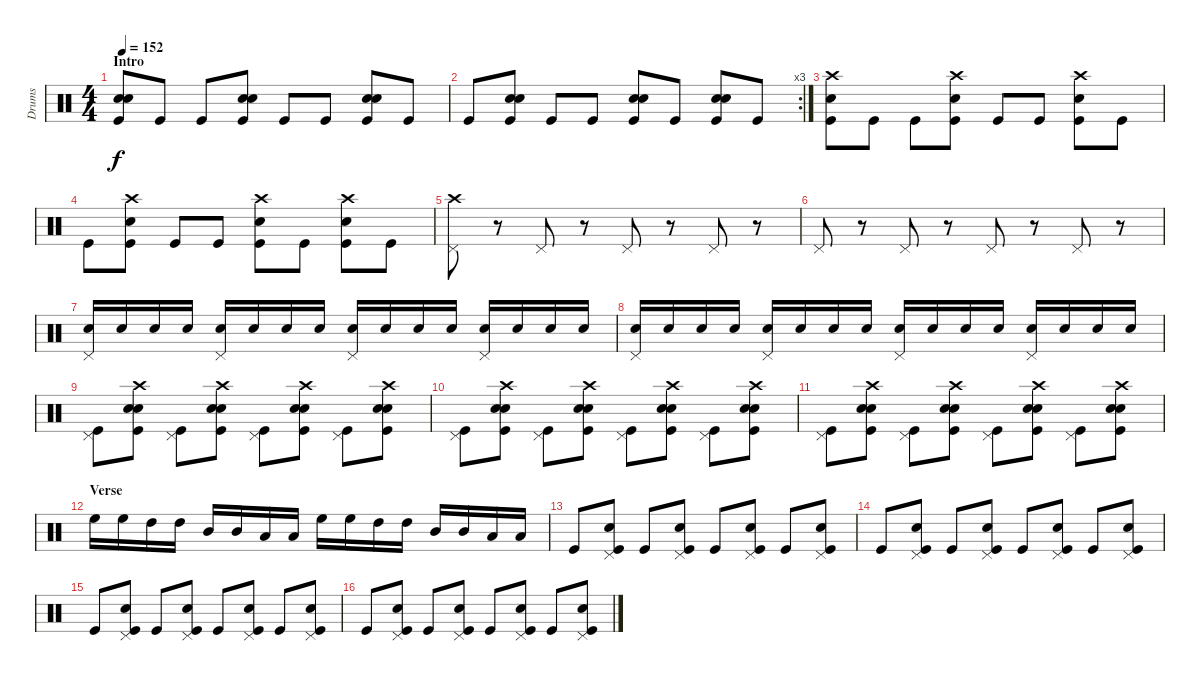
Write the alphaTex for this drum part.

\track ("Drums" "Drums") {instrument percussion}
\staff {score}
\articulation defaults
\ts (4 4)
\section ("" "Intro")
\tempo 152
\clef neutral
\ks c
("Electric Snare (hit)" "Electric Snare (hit)" "Kick (hit)").8{dy f} "Kick (hit)".8 "Kick (hit)".8 ("Electric Snare (hit)" "Electric Snare (hit)" "Kick (hit)").8 "Kick (hit)".8 "Kick (hit)".8 ("Electric Snare (hit)" "Electric Snare (hit)" "Kick (hit)").8 "Kick (hit)".8 |
\rc 3 "Kick (hit)".8
("Electric Snare (hit)" "Electric Snare (hit)" "Kick (hit)").8 "Kick (hit)".8 "Kick (hit)".8 ("Electric Snare (hit)" "Electric Snare (hit)" "Kick (hit)").8 "Kick (hit)".8 ("Electric Snare (hit)" "Electric Snare (hit)" "Kick (hit)").8 "Kick (hit)".8 |
("Crash high (hit)" "Electric Snare (hit)" "Kick (hit)").8 "Kick (hit)".8 "Kick (hit)".8 ("Crash high (hit)" "Electric Snare (hit)" "Kick (hit)").8 "Kick (hit)".8 "Kick (hit)".8 ("Crash high (hit)" "Electric Snare (hit)" "Kick (hit)").8 "Kick (hit)".8 |
"Kick (hit)".8 ("Crash high (hit)" "Electric Snare (hit)" "Kick (hit)").8 "Kick (hit)".8 "Kick (hit)".8 ("Crash high (hit)" "Electric Snare (hit)" "Kick (hit)").8 "Kick (hit)".8 ("Crash high (hit)" "Electric Snare (hit)" "Kick (hit)").8 "Kick (hit)".8 |
("Crash high (hit)" "Pedal Hi-Hat (hit)").8 r.8 "Pedal Hi-Hat (hit)".8 r.8 "Pedal Hi-Hat (hit)".8 r.8 "Pedal Hi-Hat (hit)".8 r.8 |
"Pedal Hi-Hat (hit)".8 r.8 "Pedal Hi-Hat (hit)".8 r.8 "Pedal Hi-Hat (hit)".8 r.8 "Pedal Hi-Hat (hit)".8 r.8 |
("Pedal Hi-Hat (hit)" "Electric Snare (hit)").16 "Electric Snare (hit)".16 "Electric Snare (hit)".16 "Electric Snare (hit)".16 ("Pedal Hi-Hat (hit)" "Electric Snare (hit)").16 "Electric Snare (hit)".16 "Electric Snare (hit)".16 "Electric Snare (hit)".16 ("Pedal Hi-Hat (hit)" "Electric Snare (hit)").16 "Electric Snare (hit)".16 "Electric Snare (hit)".16 "Electric Snare (hit)".16 ("Pedal Hi-Hat (hit)" "Electric Snare (hit)").16 "Electric Snare (hit)".16 "Electric Snare (hit)".16 "Electric Snare (hit)".16 |
("Pedal Hi-Hat (hit)" "Electric Snare (hit)").16 "Electric Snare (hit)".16 "Electric Snare (hit)".16 "Electric Snare (hit)".16 ("Pedal Hi-Hat (hit)" "Electric Snare (hit)").16 "Electric Snare (hit)".16 "Electric Snare (hit)".16 "Electric Snare (hit)".16 ("Pedal Hi-Hat (hit)" "Electric Snare (hit)").16 "Electric Snare (hit)".16 "Electric Snare (hit)".16 "Electric Snare (hit)".16 ("Pedal Hi-Hat (hit)" "Electric Snare (hit)").16 "Electric Snare (hit)".16 "Electric Snare (hit)".16 "Electric Snare (hit)".16 |
("Pedal Hi-Hat (hit)" "Kick (hit)").8 ("Crash high (hit)" "Electric Snare (hit)" "Electric Snare (hit)" "Kick (hit)").8 ("Pedal Hi-Hat (hit)" "Kick (hit)").8 ("Crash high (hit)" "Electric Snare (hit)" "Electric Snare (hit)" "Kick (hit)").8 ("Pedal Hi-Hat (hit)" "Kick (hit)").8 ("Crash high (hit)" "Electric Snare (hit)" "Electric Snare (hit)" "Kick (hit)").8 ("Pedal Hi-Hat (hit)" "Kick (hit)").8 ("Crash high (hit)" "Electric Snare (hit)" "Electric Snare (hit)" "Kick (hit)").8 |
("Pedal Hi-Hat (hit)" "Kick (hit)").8 ("Crash high (hit)" "Electric Snare (hit)" "Electric Snare (hit)" "Kick (hit)").8 ("Pedal Hi-Hat (hit)" "Kick (hit)").8 ("Crash high (hit)" "Electric Snare (hit)" "Electric Snare (hit)" "Kick (hit)").8 ("Pedal Hi-Hat (hit)" "Kick (hit)").8 ("Crash high (hit)" "Electric Snare (hit)" "Electric Snare (hit)" "Kick (hit)").8 ("Pedal Hi-Hat (hit)" "Kick (hit)").8 ("Crash high (hit)" "Electric Snare (hit)" "Electric Snare (hit)" "Kick (hit)").8 |
("Pedal Hi-Hat (hit)" "Kick (hit)").8 ("Crash high (hit)" "Electric Snare (hit)" "Electric Snare (hit)" "Kick (hit)").8 ("Pedal Hi-Hat (hit)" "Kick (hit)").8 ("Crash high (hit)" "Electric Snare (hit)" "Electric Snare (hit)" "Kick (hit)").8 ("Pedal Hi-Hat (hit)" "Kick (hit)").8 ("Crash high (hit)" "Electric Snare (hit)" "Electric Snare (hit)" "Kick (hit)").8 ("Pedal Hi-Hat (hit)" "Kick (hit)").8 ("Crash high (hit)" "Electric Snare (hit)" "Electric Snare (hit)" "Kick (hit)").8 |
\section ("" "Verse")
"High Floor Tom (hit)".16 "High Floor Tom (hit)".16 "High Tom (hit)".16 "High Tom (hit)".16 "Mid Tom (hit)".16 "Mid Tom (hit)".16 "Low Tom (hit)".16 "Low Tom (hit)".16 "High Floor Tom (hit)".16 "High Floor Tom (hit)".16 "High Tom (hit)".16 "High Tom (hit)".16 "Mid Tom (hit)".16 "Mid Tom (hit)".16 "Low Tom (hit)".16 "Low Tom (hit)".16 |
"Kick (hit)".8 ("Pedal Hi-Hat (hit)" "Electric Snare (hit)" "Kick (hit)").8 "Kick (hit)".8 ("Pedal Hi-Hat (hit)" "Electric Snare (hit)" "Kick (hit)").8 "Kick (hit)".8 ("Pedal Hi-Hat (hit)" "Electric Snare (hit)" "Kick (hit)").8 "Kick (hit)".8 ("Pedal Hi-Hat (hit)" "Electric Snare (hit)" "Kick (hit)").8 |
"Kick (hit)".8 ("Pedal Hi-Hat (hit)" "Electric Snare (hit)" "Kick (hit)").8 "Kick (hit)".8 ("Pedal Hi-Hat (hit)" "Electric Snare (hit)" "Kick (hit)").8 "Kick (hit)".8 ("Pedal Hi-Hat (hit)" "Electric Snare (hit)" "Kick (hit)").8 "Kick (hit)".8 ("Pedal Hi-Hat (hit)" "Electric Snare (hit)" "Kick (hit)").8 |
"Kick (hit)".8 ("Pedal Hi-Hat (hit)" "Electric Snare (hit)" "Kick (hit)").8 "Kick (hit)".8 ("Pedal Hi-Hat (hit)" "Electric Snare (hit)" "Kick (hit)").8 "Kick (hit)".8 ("Pedal Hi-Hat (hit)" "Electric Snare (hit)" "Kick (hit)").8 "Kick (hit)".8 ("Pedal Hi-Hat (hit)" "Electric Snare (hit)" "Kick (hit)").8 |
"Kick (hit)".8 ("Pedal Hi-Hat (hit)" "Electric Snare (hit)" "Kick (hit)").8 "Kick (hit)".8 ("Pedal Hi-Hat (hit)" "Electric Snare (hit)" "Kick (hit)").8 "Kick (hit)".8 ("Pedal Hi-Hat (hit)" "Electric Snare (hit)" "Kick (hit)").8 "Kick (hit)".8 ("Pedal Hi-Hat (hit)" "Electric Snare (hit)" "Kick (hit)").8
